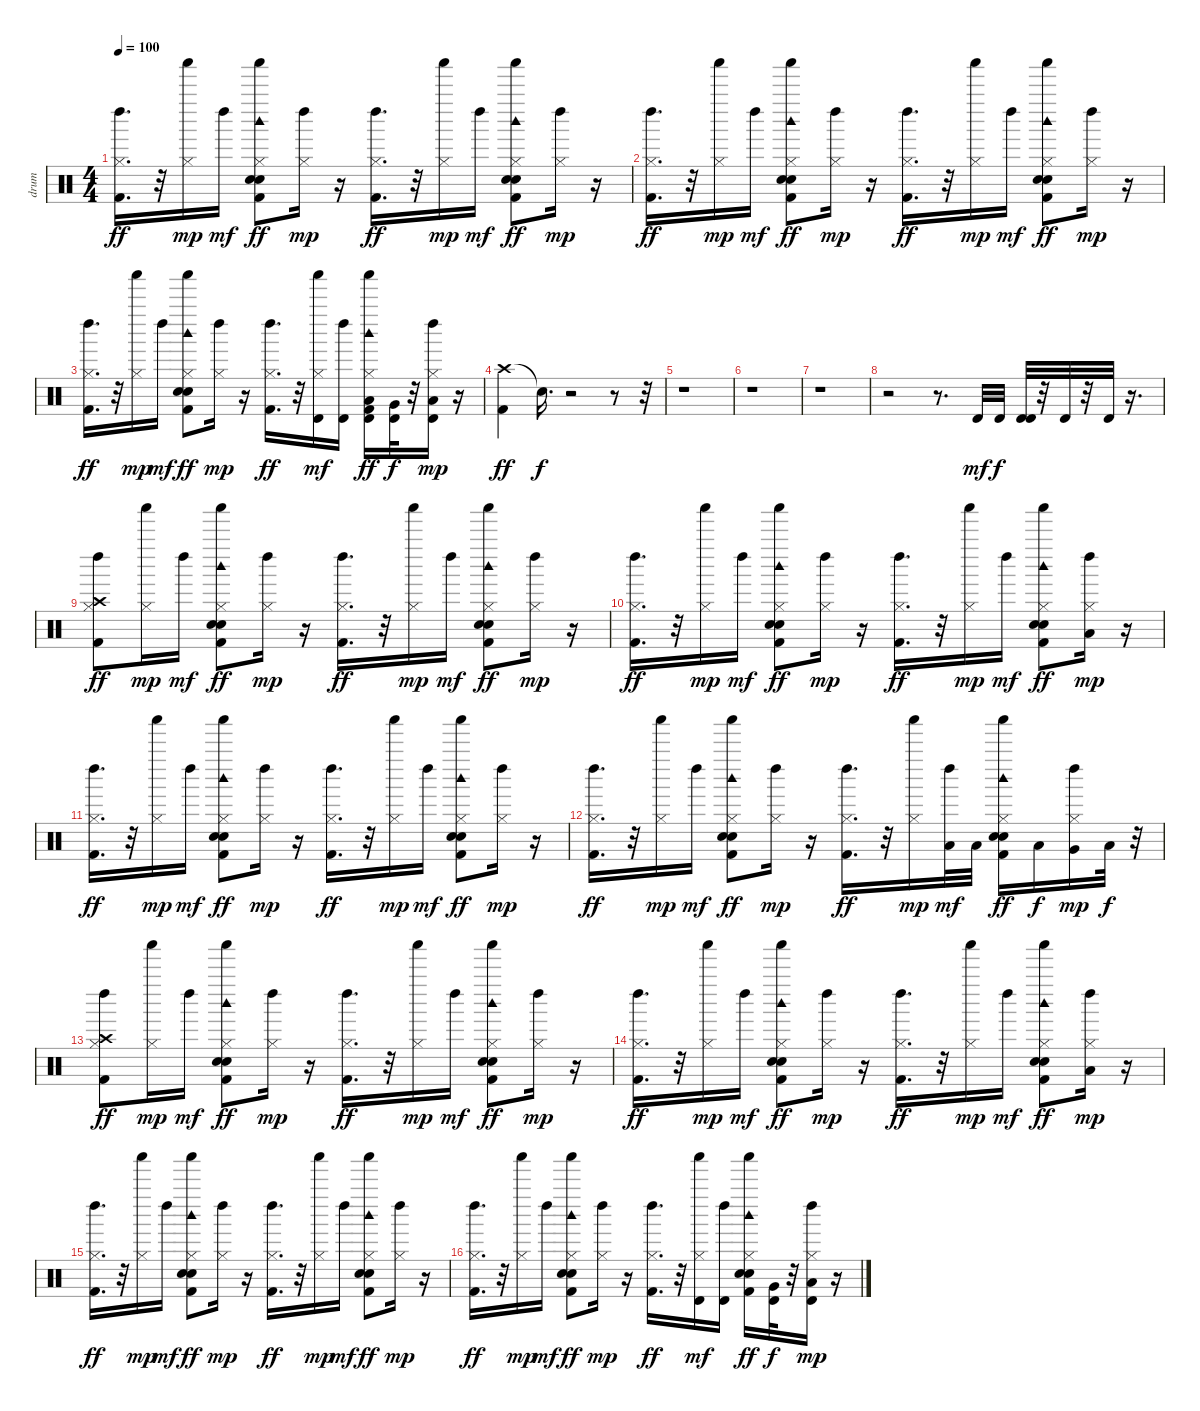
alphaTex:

\track ("drum" "drum") {instrument percussion}
\staff {score}
\articulation defaults
\ts (4 4)
\tempo 100
\clef neutral
\ks c
("Left Maraca (hit)" "Hi-Hat (closed)" "Kick (hit) 2").16{d dy ff} r.32 ("Shaker (hit)" "Hi-Hat (closed)").16{dy mp} "Left Maraca (hit)".16{dy mf} ("Shaker (hit)" "Woodblock high (hit)" "Hi-Hat (closed)" "Hand Clap (hit)" "Snare (hit) 2" "Kick (hit) 2").8{dy ff} ("Left Maraca (hit)" "Hi-Hat (closed)").16{dy mp} r.16 ("Left Maraca (hit)" "Hi-Hat (closed)" "Kick (hit) 2").16{d dy ff} r.32 ("Shaker (hit)" "Hi-Hat (closed)").16{dy mp} "Left Maraca (hit)".16{dy mf} ("Shaker (hit)" "Woodblock high (hit)" "Hi-Hat (closed)" "Hand Clap (hit)" "Snare (hit) 2" "Kick (hit) 2").8{dy ff} ("Left Maraca (hit)" "Hi-Hat (closed)").16{dy mp} r.16 |
("Left Maraca (hit)" "Hi-Hat (closed)" "Kick (hit) 2").16{d dy ff} r.32 ("Shaker (hit)" "Hi-Hat (closed)").16{dy mp} "Left Maraca (hit)".16{dy mf} ("Shaker (hit)" "Woodblock high (hit)" "Hi-Hat (closed)" "Hand Clap (hit)" "Snare (hit) 2" "Kick (hit) 2").8{dy ff} ("Left Maraca (hit)" "Hi-Hat (closed)").16{dy mp} r.16 ("Left Maraca (hit)" "Hi-Hat (closed)" "Kick (hit) 2").16{d dy ff} r.32 ("Shaker (hit)" "Hi-Hat (closed)").16{dy mp} "Left Maraca (hit)".16{dy mf} ("Shaker (hit)" "Woodblock high (hit)" "Hi-Hat (closed)" "Hand Clap (hit)" "Snare (hit) 2" "Kick (hit) 2").8{dy ff} ("Left Maraca (hit)" "Hi-Hat (closed)").16{dy mp} r.16 |
("Left Maraca (hit)" "Hi-Hat (closed)" "Kick (hit) 2").16{d dy ff} r.32 ("Shaker (hit)" "Hi-Hat (closed)").16{dy mp} "Left Maraca (hit)".16{dy mf} ("Shaker (hit)" "Woodblock high (hit)" "Hi-Hat (closed)" "Hand Clap (hit)" "Snare (hit) 2" "Kick (hit) 2").8{dy ff} ("Left Maraca (hit)" "Hi-Hat (closed)").16{dy mp} r.16 ("Left Maraca (hit)" "Hi-Hat (closed)" "Kick (hit) 2").16{d dy ff} r.32 ("Shaker (hit)" "Hi-Hat (closed)" "Timbale high (hit)").16{dy mf} ("Left Maraca (hit)" "Timbale high (hit)").16 ("Shaker (hit)" "Woodblock high (hit)" "Hi-Hat (closed)" "Kick (hit) 2" "Low Tom (hit)" "Timbale high (hit)").16{dy ff} ("Very Low Tom (hit)" "Timbale high (hit)").32{dy f} r.32 ("Left Maraca (hit)" "Hi-Hat (closed)" "Low Floor Tom (hit)" "Timbale high (hit)").16{dy mp} r.16 |
("Crash high (hit)" "Kick (hit) 2").4{dy ff} "Snare (hit)"{t}.16{d dy f} r.2 r.8 r.32 |
r.1 |
r.1 |
r.1 |
r.2 r.8{d} "Timbale high (hit)".32{dy mf} "Timbale high (hit)".32{dy f} ("Timbale high (hit)" "Timbale high (hit)").32 r.32 "Timbale high (hit)".32 r.32 "Timbale high (hit)".32 r.16{d} |
("Crash high (hit)" "Left Maraca (hit)" "Hi-Hat (closed)" "Kick (hit) 2").8{dy ff} ("Shaker (hit)" "Hi-Hat (closed)").16{dy mp} "Left Maraca (hit)".16{dy mf} ("Shaker (hit)" "Woodblock high (hit)" "Hi-Hat (closed)" "Hand Clap (hit)" "Snare (hit) 2" "Kick (hit) 2").8{dy ff} ("Left Maraca (hit)" "Hi-Hat (closed)").16{dy mp} r.16 ("Left Maraca (hit)" "Hi-Hat (closed)" "Kick (hit) 2").16{d dy ff} r.32 ("Shaker (hit)" "Hi-Hat (closed)").16{dy mp} "Left Maraca (hit)".16{dy mf} ("Shaker (hit)" "Woodblock high (hit)" "Hi-Hat (closed)" "Hand Clap (hit)" "Snare (hit) 2" "Kick (hit) 2").8{dy ff} ("Left Maraca (hit)" "Hi-Hat (closed)").16{dy mp} r.16 |
("Left Maraca (hit)" "Hi-Hat (closed)" "Kick (hit) 2").16{d dy ff} r.32 ("Shaker (hit)" "Hi-Hat (closed)").16{dy mp} "Left Maraca (hit)".16{dy mf} ("Shaker (hit)" "Woodblock high (hit)" "Hi-Hat (closed)" "Hand Clap (hit)" "Snare (hit) 2" "Kick (hit) 2").8{dy ff} ("Left Maraca (hit)" "Hi-Hat (closed)").16{dy mp} r.16 ("Left Maraca (hit)" "Hi-Hat (closed)" "Kick (hit) 2").16{d dy ff} r.32 ("Shaker (hit)" "Hi-Hat (closed)").16{dy mp} "Left Maraca (hit)".16{dy mf} ("Shaker (hit)" "Woodblock high (hit)" "Hi-Hat (closed)" "Hand Clap (hit)" "Snare (hit) 2" "Kick (hit) 2").8{dy ff} ("Left Maraca (hit)" "Hi-Hat (closed)" "Low Floor Tom (hit)").16{dy mp} r.16 |
("Left Maraca (hit)" "Hi-Hat (closed)" "Kick (hit) 2").16{d dy ff} r.32 ("Shaker (hit)" "Hi-Hat (closed)").16{dy mp} "Left Maraca (hit)".16{dy mf} ("Shaker (hit)" "Woodblock high (hit)" "Hi-Hat (closed)" "Hand Clap (hit)" "Snare (hit) 2" "Kick (hit) 2").8{dy ff} ("Left Maraca (hit)" "Hi-Hat (closed)").16{dy mp} r.16 ("Left Maraca (hit)" "Hi-Hat (closed)" "Kick (hit) 2").16{d dy ff} r.32 ("Shaker (hit)" "Hi-Hat (closed)").16{dy mp} "Left Maraca (hit)".16{dy mf} ("Shaker (hit)" "Woodblock high (hit)" "Hi-Hat (closed)" "Hand Clap (hit)" "Snare (hit) 2" "Kick (hit) 2").8{dy ff} ("Left Maraca (hit)" "Hi-Hat (closed)").16{dy mp} r.16 |
("Left Maraca (hit)" "Hi-Hat (closed)" "Kick (hit) 2").16{d dy ff} r.32 ("Shaker (hit)" "Hi-Hat (closed)").16{dy mp} "Left Maraca (hit)".16{dy mf} ("Shaker (hit)" "Woodblock high (hit)" "Hi-Hat (closed)" "Hand Clap (hit)" "Snare (hit) 2" "Kick (hit) 2").8{dy ff} ("Left Maraca (hit)" "Hi-Hat (closed)").16{dy mp} r.16 ("Left Maraca (hit)" "Hi-Hat (closed)" "Kick (hit) 2").16{d dy ff} r.32 ("Shaker (hit)" "Hi-Hat (closed)").16{dy mp} ("Left Maraca (hit)" "Low Tom (hit)").32{dy mf} "Low Tom (hit)".32 ("Shaker (hit)" "Woodblock high (hit)" "Hi-Hat (closed)" "Hand Clap (hit)" "Snare (hit) 2" "Kick (hit) 2").16{dy ff} "Low Tom (hit)".16{dy f} ("Left Maraca (hit)" "Hi-Hat (closed)" "Very Low Tom (hit)").16{dy mp} "Low Floor Tom (hit)".32{dy f} r.32 |
("Crash high (hit)" "Left Maraca (hit)" "Hi-Hat (closed)" "Kick (hit) 2").8{dy ff} ("Shaker (hit)" "Hi-Hat (closed)").16{dy mp} "Left Maraca (hit)".16{dy mf} ("Shaker (hit)" "Woodblock high (hit)" "Hi-Hat (closed)" "Hand Clap (hit)" "Snare (hit) 2" "Kick (hit) 2").8{dy ff} ("Left Maraca (hit)" "Hi-Hat (closed)").16{dy mp} r.16 ("Left Maraca (hit)" "Hi-Hat (closed)" "Kick (hit) 2").16{d dy ff} r.32 ("Shaker (hit)" "Hi-Hat (closed)").16{dy mp} "Left Maraca (hit)".16{dy mf} ("Shaker (hit)" "Woodblock high (hit)" "Hi-Hat (closed)" "Hand Clap (hit)" "Snare (hit) 2" "Kick (hit) 2").8{dy ff} ("Left Maraca (hit)" "Hi-Hat (closed)").16{dy mp} r.16 |
("Left Maraca (hit)" "Hi-Hat (closed)" "Kick (hit) 2").16{d dy ff} r.32 ("Shaker (hit)" "Hi-Hat (closed)").16{dy mp} "Left Maraca (hit)".16{dy mf} ("Shaker (hit)" "Woodblock high (hit)" "Hi-Hat (closed)" "Hand Clap (hit)" "Snare (hit) 2" "Kick (hit) 2").8{dy ff} ("Left Maraca (hit)" "Hi-Hat (closed)").16{dy mp} r.16 ("Left Maraca (hit)" "Hi-Hat (closed)" "Kick (hit) 2").16{d dy ff} r.32 ("Shaker (hit)" "Hi-Hat (closed)").16{dy mp} "Left Maraca (hit)".16{dy mf} ("Shaker (hit)" "Woodblock high (hit)" "Hi-Hat (closed)" "Hand Clap (hit)" "Snare (hit) 2" "Kick (hit) 2").8{dy ff} ("Left Maraca (hit)" "Hi-Hat (closed)" "Low Floor Tom (hit)").16{dy mp} r.16 |
("Left Maraca (hit)" "Hi-Hat (closed)" "Kick (hit) 2").16{d dy ff} r.32 ("Shaker (hit)" "Hi-Hat (closed)").16{dy mp} "Left Maraca (hit)".16{dy mf} ("Shaker (hit)" "Woodblock high (hit)" "Hi-Hat (closed)" "Hand Clap (hit)" "Snare (hit) 2" "Kick (hit) 2").8{dy ff} ("Left Maraca (hit)" "Hi-Hat (closed)").16{dy mp} r.16 ("Left Maraca (hit)" "Hi-Hat (closed)" "Kick (hit) 2").16{d dy ff} r.32 ("Shaker (hit)" "Hi-Hat (closed)").16{dy mp} "Left Maraca (hit)".16{dy mf} ("Shaker (hit)" "Woodblock high (hit)" "Hi-Hat (closed)" "Hand Clap (hit)" "Snare (hit) 2" "Kick (hit) 2").8{dy ff} ("Left Maraca (hit)" "Hi-Hat (closed)").16{dy mp} r.16 |
("Left Maraca (hit)" "Hi-Hat (closed)" "Kick (hit) 2").16{d dy ff} r.32 ("Shaker (hit)" "Hi-Hat (closed)").16{dy mp} "Left Maraca (hit)".16{dy mf} ("Shaker (hit)" "Woodblock high (hit)" "Hi-Hat (closed)" "Hand Clap (hit)" "Snare (hit) 2" "Kick (hit) 2").8{dy ff} ("Left Maraca (hit)" "Hi-Hat (closed)").16{dy mp} r.16 ("Left Maraca (hit)" "Hi-Hat (closed)" "Kick (hit) 2").16{d dy ff} r.32 ("Shaker (hit)" "Hi-Hat (closed)" "Timbale high (hit)").16{dy mf} ("Left Maraca (hit)" "Timbale high (hit)").16 ("Shaker (hit)" "Woodblock high (hit)" "Hi-Hat (closed)" "Hand Clap (hit)" "Snare (hit) 2" "Kick (hit) 2").16{dy ff} ("Very Low Tom (hit)" "Timbale high (hit)").32{dy f} r.32 ("Left Maraca (hit)" "Hi-Hat (closed)" "Low Floor Tom (hit)" "Timbale high (hit)").16{dy mp} r.16
